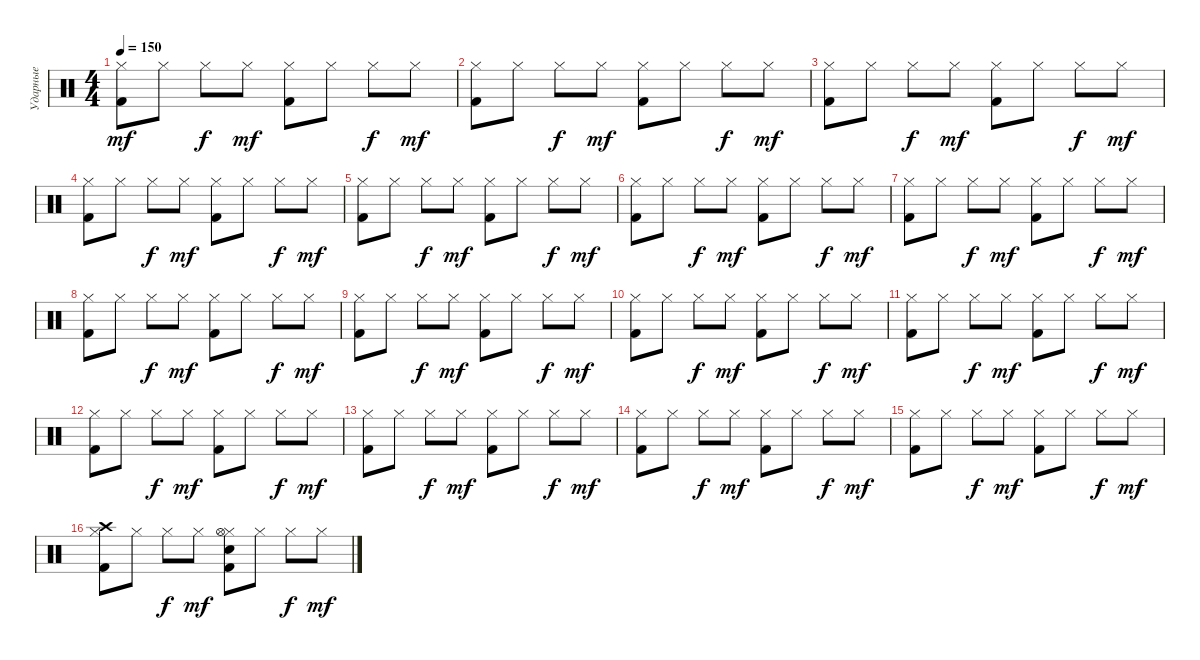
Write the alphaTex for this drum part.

\track ("Ударные" "Ударные") {instrument percussion}
\staff {score}
\articulation defaults
\ts (4 4)
\tempo 150
\clef neutral
\ks c
("Kick (hit) 2" "Hi-Hat (closed)").8{dy mf} "Hi-Hat (closed)".8 "Hi-Hat (closed)".8{dy f} "Hi-Hat (closed)".8{dy mf} ("Kick (hit) 2" "Hi-Hat (closed)").8 "Hi-Hat (closed)".8 "Hi-Hat (closed)".8{dy f} "Hi-Hat (closed)".8{dy mf} |
("Kick (hit) 2" "Hi-Hat (closed)").8 "Hi-Hat (closed)".8 "Hi-Hat (closed)".8{dy f} "Hi-Hat (closed)".8{dy mf} ("Kick (hit) 2" "Hi-Hat (closed)").8 "Hi-Hat (closed)".8 "Hi-Hat (closed)".8{dy f} "Hi-Hat (closed)".8{dy mf} |
("Kick (hit) 2" "Hi-Hat (closed)").8 "Hi-Hat (closed)".8 "Hi-Hat (closed)".8{dy f} "Hi-Hat (closed)".8{dy mf} ("Kick (hit) 2" "Hi-Hat (closed)").8 "Hi-Hat (closed)".8 "Hi-Hat (closed)".8{dy f} "Hi-Hat (closed)".8{dy mf} |
("Kick (hit) 2" "Hi-Hat (closed)").8 "Hi-Hat (closed)".8 "Hi-Hat (closed)".8{dy f} "Hi-Hat (closed)".8{dy mf} ("Kick (hit) 2" "Hi-Hat (closed)").8 "Hi-Hat (closed)".8 "Hi-Hat (closed)".8{dy f} "Hi-Hat (closed)".8{dy mf} |
("Kick (hit) 2" "Hi-Hat (closed)").8 "Hi-Hat (closed)".8 "Hi-Hat (closed)".8{dy f} "Hi-Hat (closed)".8{dy mf} ("Kick (hit) 2" "Hi-Hat (closed)").8 "Hi-Hat (closed)".8 "Hi-Hat (closed)".8{dy f} "Hi-Hat (closed)".8{dy mf} |
("Kick (hit) 2" "Hi-Hat (closed)").8 "Hi-Hat (closed)".8 "Hi-Hat (closed)".8{dy f} "Hi-Hat (closed)".8{dy mf} ("Kick (hit) 2" "Hi-Hat (closed)").8 "Hi-Hat (closed)".8 "Hi-Hat (closed)".8{dy f} "Hi-Hat (closed)".8{dy mf} |
("Kick (hit) 2" "Hi-Hat (closed)").8 "Hi-Hat (closed)".8 "Hi-Hat (closed)".8{dy f} "Hi-Hat (closed)".8{dy mf} ("Kick (hit) 2" "Hi-Hat (closed)").8 "Hi-Hat (closed)".8 "Hi-Hat (closed)".8{dy f} "Hi-Hat (closed)".8{dy mf} |
("Kick (hit) 2" "Hi-Hat (closed)").8 "Hi-Hat (closed)".8 "Hi-Hat (closed)".8{dy f} "Hi-Hat (closed)".8{dy mf} ("Kick (hit) 2" "Hi-Hat (closed)").8 "Hi-Hat (closed)".8 "Hi-Hat (closed)".8{dy f} "Hi-Hat (closed)".8{dy mf} |
("Kick (hit) 2" "Hi-Hat (closed)").8 "Hi-Hat (closed)".8 "Hi-Hat (closed)".8{dy f} "Hi-Hat (closed)".8{dy mf} ("Kick (hit) 2" "Hi-Hat (closed)").8 "Hi-Hat (closed)".8 "Hi-Hat (closed)".8{dy f} "Hi-Hat (closed)".8{dy mf} |
("Kick (hit) 2" "Hi-Hat (closed)").8 "Hi-Hat (closed)".8 "Hi-Hat (closed)".8{dy f} "Hi-Hat (closed)".8{dy mf} ("Kick (hit) 2" "Hi-Hat (closed)").8 "Hi-Hat (closed)".8 "Hi-Hat (closed)".8{dy f} "Hi-Hat (closed)".8{dy mf} |
("Kick (hit) 2" "Hi-Hat (closed)").8 "Hi-Hat (closed)".8 "Hi-Hat (closed)".8{dy f} "Hi-Hat (closed)".8{dy mf} ("Kick (hit) 2" "Hi-Hat (closed)").8 "Hi-Hat (closed)".8 "Hi-Hat (closed)".8{dy f} "Hi-Hat (closed)".8{dy mf} |
("Kick (hit) 2" "Hi-Hat (closed)").8 "Hi-Hat (closed)".8 "Hi-Hat (closed)".8{dy f} "Hi-Hat (closed)".8{dy mf} ("Kick (hit) 2" "Hi-Hat (closed)").8 "Hi-Hat (closed)".8 "Hi-Hat (closed)".8{dy f} "Hi-Hat (closed)".8{dy mf} |
("Kick (hit) 2" "Hi-Hat (closed)").8 "Hi-Hat (closed)".8 "Hi-Hat (closed)".8{dy f} "Hi-Hat (closed)".8{dy mf} ("Kick (hit) 2" "Hi-Hat (closed)").8 "Hi-Hat (closed)".8 "Hi-Hat (closed)".8{dy f} "Hi-Hat (closed)".8{dy mf} |
("Kick (hit) 2" "Hi-Hat (closed)").8 "Hi-Hat (closed)".8 "Hi-Hat (closed)".8{dy f} "Hi-Hat (closed)".8{dy mf} ("Kick (hit) 2" "Hi-Hat (closed)").8 "Hi-Hat (closed)".8 "Hi-Hat (closed)".8{dy f} "Hi-Hat (closed)".8{dy mf} |
("Kick (hit) 2" "Hi-Hat (closed)").8 "Hi-Hat (closed)".8 "Hi-Hat (closed)".8{dy f} "Hi-Hat (closed)".8{dy mf} ("Kick (hit) 2" "Hi-Hat (closed)").8 "Hi-Hat (closed)".8 "Hi-Hat (closed)".8{dy f} "Hi-Hat (closed)".8{dy mf} |
("Kick (hit) 2" "Crash high (hit)" "Hi-Hat (closed)").8 "Hi-Hat (closed)".8 "Hi-Hat (closed)".8{dy f} "Hi-Hat (closed)".8{dy mf} ("Kick (hit) 2" "Snare (hit) 2" "Hi-Hat (closed)" "Hi-Hat (open)").8 "Hi-Hat (closed)".8 "Hi-Hat (closed)".8{dy f} "Hi-Hat (closed)".8{dy mf}
